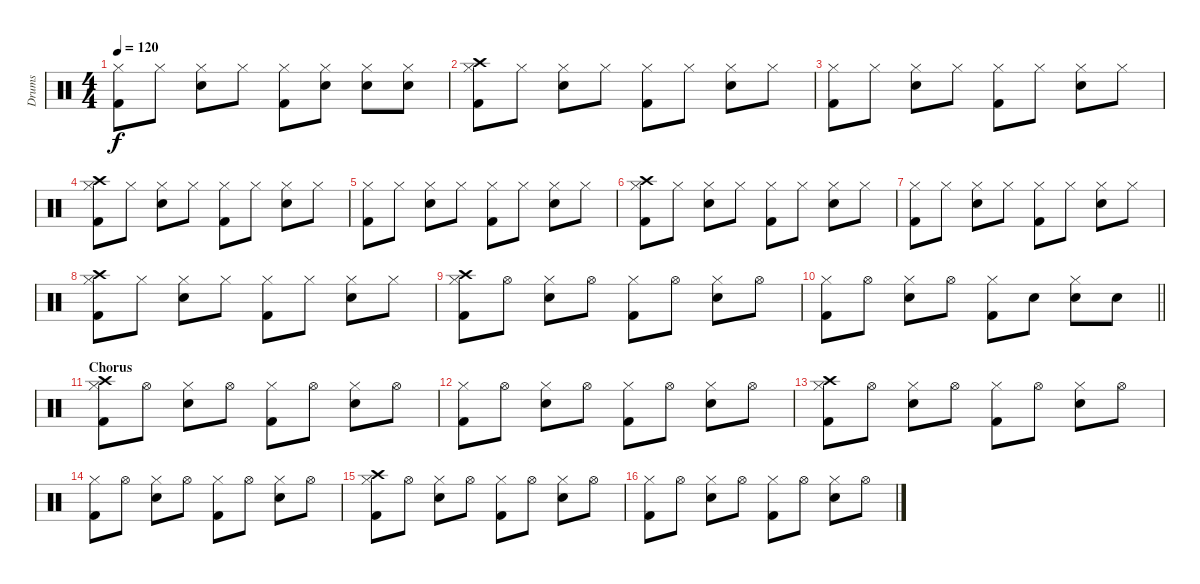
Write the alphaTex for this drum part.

\track ("Drums" "Drums") {instrument percussion}
\staff {score}
\articulation defaults
\ts (4 4)
\tempo 120
\clef neutral
\ks c
("Hi-Hat (closed)" "Kick (hit) 2").8{dy f} "Hi-Hat (closed)".8 ("Hi-Hat (closed)" "Snare (hit) 2").8 "Hi-Hat (closed)".8 ("Hi-Hat (closed)" "Kick (hit) 2").8 ("Hi-Hat (closed)" "Snare (hit) 2").8 ("Hi-Hat (closed)" "Snare (hit) 2").8 ("Hi-Hat (closed)" "Snare (hit) 2").8 |
("Crash high (hit)" "Hi-Hat (closed)" "Kick (hit) 2").8 "Hi-Hat (closed)".8 ("Hi-Hat (closed)" "Snare (hit) 2").8 "Hi-Hat (closed)".8 ("Hi-Hat (closed)" "Kick (hit) 2").8 "Hi-Hat (closed)".8 ("Hi-Hat (closed)" "Snare (hit) 2").8 "Hi-Hat (closed)".8 |
("Hi-Hat (closed)" "Kick (hit) 2").8 "Hi-Hat (closed)".8 ("Hi-Hat (closed)" "Snare (hit) 2").8 "Hi-Hat (closed)".8 ("Hi-Hat (closed)" "Kick (hit) 2").8 "Hi-Hat (closed)".8 ("Hi-Hat (closed)" "Snare (hit) 2").8 "Hi-Hat (closed)".8 |
("Crash high (hit)" "Hi-Hat (closed)" "Kick (hit) 2").8 "Hi-Hat (closed)".8 ("Hi-Hat (closed)" "Snare (hit) 2").8 "Hi-Hat (closed)".8 ("Hi-Hat (closed)" "Kick (hit) 2").8 "Hi-Hat (closed)".8 ("Hi-Hat (closed)" "Snare (hit) 2").8 "Hi-Hat (closed)".8 |
("Hi-Hat (closed)" "Kick (hit) 2").8 "Hi-Hat (closed)".8 ("Hi-Hat (closed)" "Snare (hit) 2").8 "Hi-Hat (closed)".8 ("Hi-Hat (closed)" "Kick (hit) 2").8 "Hi-Hat (closed)".8 ("Hi-Hat (closed)" "Snare (hit) 2").8 "Hi-Hat (closed)".8 |
("Crash high (hit)" "Hi-Hat (closed)" "Kick (hit) 2").8 "Hi-Hat (closed)".8 ("Hi-Hat (closed)" "Snare (hit) 2").8 "Hi-Hat (closed)".8 ("Hi-Hat (closed)" "Kick (hit) 2").8 "Hi-Hat (closed)".8 ("Hi-Hat (closed)" "Snare (hit) 2").8 "Hi-Hat (closed)".8 |
("Hi-Hat (closed)" "Kick (hit) 2").8 "Hi-Hat (closed)".8 ("Hi-Hat (closed)" "Snare (hit) 2").8 "Hi-Hat (closed)".8 ("Hi-Hat (closed)" "Kick (hit) 2").8 "Hi-Hat (closed)".8 ("Hi-Hat (closed)" "Snare (hit) 2").8 "Hi-Hat (closed)".8 |
("Crash high (hit)" "Hi-Hat (closed)" "Kick (hit) 2").8 "Hi-Hat (closed)".8 ("Hi-Hat (closed)" "Snare (hit) 2").8 "Hi-Hat (closed)".8 ("Hi-Hat (closed)" "Kick (hit) 2").8 "Hi-Hat (closed)".8 ("Hi-Hat (closed)" "Snare (hit) 2").8 "Hi-Hat (closed)".8 |
("Crash high (hit)" "Hi-Hat (closed)" "Kick (hit) 2").8 "Hi-Hat (open)".8 ("Hi-Hat (closed)" "Snare (hit) 2").8 "Hi-Hat (open)".8 ("Hi-Hat (closed)" "Kick (hit) 2").8 "Hi-Hat (open)".8 ("Hi-Hat (closed)" "Snare (hit) 2").8 "Hi-Hat (open)".8 |
\barLineRight lightlight
("Hi-Hat (closed)" "Kick (hit) 2").8 "Hi-Hat (open)".8 ("Hi-Hat (closed)" "Snare (hit) 2").8 "Hi-Hat (open)".8 ("Hi-Hat (closed)" "Kick (hit) 2").8 "Snare (hit) 2".8 ("Hi-Hat (closed)" "Snare (hit) 2").8 "Snare (hit) 2".8 |
\section ("" "Chorus")
("Crash high (hit)" "Hi-Hat (closed)" "Kick (hit) 2").8 "Hi-Hat (open)".8 ("Hi-Hat (closed)" "Snare (hit) 2").8 "Hi-Hat (open)".8 ("Hi-Hat (closed)" "Kick (hit) 2").8 "Hi-Hat (open)".8 ("Hi-Hat (closed)" "Snare (hit) 2").8 "Hi-Hat (open)".8 |
("Hi-Hat (closed)" "Kick (hit) 2").8 "Hi-Hat (open)".8 ("Hi-Hat (closed)" "Snare (hit) 2").8 "Hi-Hat (open)".8 ("Hi-Hat (closed)" "Kick (hit) 2").8 "Hi-Hat (open)".8 ("Hi-Hat (closed)" "Snare (hit) 2").8 "Hi-Hat (open)".8 |
("Crash high (hit)" "Hi-Hat (closed)" "Kick (hit) 2").8 "Hi-Hat (open)".8 ("Hi-Hat (closed)" "Snare (hit) 2").8 "Hi-Hat (open)".8 ("Hi-Hat (closed)" "Kick (hit) 2").8 "Hi-Hat (open)".8 ("Hi-Hat (closed)" "Snare (hit) 2").8 "Hi-Hat (open)".8 |
("Hi-Hat (closed)" "Kick (hit) 2").8 "Hi-Hat (open)".8 ("Hi-Hat (closed)" "Snare (hit) 2").8 "Hi-Hat (open)".8 ("Hi-Hat (closed)" "Kick (hit) 2").8 "Hi-Hat (open)".8 ("Hi-Hat (closed)" "Snare (hit) 2").8 "Hi-Hat (open)".8 |
("Crash high (hit)" "Hi-Hat (closed)" "Kick (hit) 2").8 "Hi-Hat (open)".8 ("Hi-Hat (closed)" "Snare (hit) 2").8 "Hi-Hat (open)".8 ("Hi-Hat (closed)" "Kick (hit) 2").8 "Hi-Hat (open)".8 ("Hi-Hat (closed)" "Snare (hit) 2").8 "Hi-Hat (open)".8 |
("Hi-Hat (closed)" "Kick (hit) 2").8 "Hi-Hat (open)".8 ("Hi-Hat (closed)" "Snare (hit) 2").8 "Hi-Hat (open)".8 ("Hi-Hat (closed)" "Kick (hit) 2").8 "Hi-Hat (open)".8 ("Hi-Hat (closed)" "Snare (hit) 2").8 "Hi-Hat (open)".8
